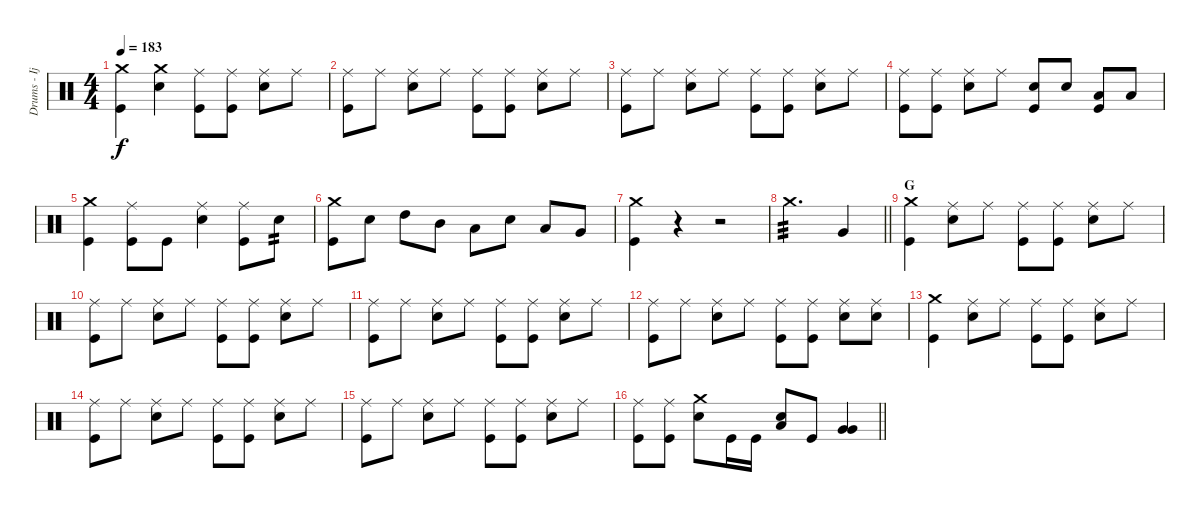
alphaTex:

\track ("Drums - Ijichi" "Drums - Ij") {instrument percussion}
\staff {score}
\articulation defaults
\ts (4 4)
\tempo 183
\clef neutral
\ks c
("Crash medium (hit)" "Kick (hit)").4{dy f} ("Crash medium (hit)" "Electric Snare (hit)").4 ("Ride (middle)" "Kick (hit)").8 ("Ride (middle)" "Kick (hit)").8 ("Ride (middle)" "Electric Snare (hit)").8 "Ride (middle)".8 |
("Ride (middle)" "Kick (hit)").8 "Ride (middle)".8 ("Ride (middle)" "Electric Snare (hit)").8 "Ride (middle)".8 ("Ride (middle)" "Kick (hit)").8 ("Ride (middle)" "Kick (hit)").8 ("Ride (middle)" "Electric Snare (hit)").8 "Ride (middle)".8 |
("Ride (middle)" "Kick (hit)").8 "Ride (middle)".8 ("Ride (middle)" "Electric Snare (hit)").8 "Ride (middle)".8 ("Ride (middle)" "Kick (hit)").8 ("Ride (middle)" "Kick (hit)").8 ("Ride (middle)" "Electric Snare (hit)").8 "Ride (middle)".8 |
("Ride (middle)" "Kick (hit)").8 ("Ride (middle)" "Kick (hit)").8 ("Ride (middle)" "Electric Snare (hit)").8 "Ride (middle)".8 ("Electric Snare (hit)" "Kick (hit)").8 "Electric Snare (hit)".8 ("Low Tom (hit)" "Kick (hit)").8 "Low Tom (hit)".8 |
("Crash medium (hit)" "Kick (hit)").4 ("Ride (middle)" "Kick (hit)").8 "Kick (hit)".8 ("Ride (middle)" "Electric Snare (hit)").4 ("Ride (middle)" "Kick (hit)").8 "Electric Snare (hit)".8{tp 2} |
("Crash medium (hit)" "Kick (hit)").8 "Electric Snare (hit)".8 "High Tom (hit)".8 "Mid Tom (hit)".8 "Low Tom (hit)".8 "Electric Snare (hit)".8 "Low Tom (hit)".8 "Very Low Tom (hit)".8 |
("Crash medium (hit)" "Kick (hit)").4{volume 11} r.4 r.2 |
\barLineRight lightlight "Crash medium (hit)".2{d tp 3 volume 13} "Very Low Tom (hit)".4
|
\section ("" "G")
("Crash medium (hit)" "Kick (hit)").4 ("Ride (middle)" "Electric Snare (hit)").8 "Ride (middle)".8 ("Ride (middle)" "Kick (hit)").8 ("Ride (middle)" "Kick (hit)").8 ("Ride (middle)" "Electric Snare (hit)").8 "Ride (middle)".8 |
("Ride (middle)" "Kick (hit)").8 "Ride (middle)".8 ("Ride (middle)" "Electric Snare (hit)").8 "Ride (middle)".8 ("Ride (middle)" "Kick (hit)").8 ("Ride (middle)" "Kick (hit)").8 ("Ride (middle)" "Electric Snare (hit)").8 "Ride (middle)".8 |
("Ride (middle)" "Kick (hit)").8 "Ride (middle)".8 ("Ride (middle)" "Electric Snare (hit)").8 "Ride (middle)".8 ("Ride (middle)" "Kick (hit)").8 ("Ride (middle)" "Kick (hit)").8 ("Ride (middle)" "Electric Snare (hit)").8 "Ride (middle)".8 |
("Ride (middle)" "Kick (hit)").8 "Ride (middle)".8 ("Ride (middle)" "Electric Snare (hit)").8 "Ride (middle)".8 ("Ride (middle)" "Kick (hit)").8 ("Ride (middle)" "Kick (hit)").8 ("Ride (middle)" "Electric Snare (hit)").8 ("Ride (middle)" "Electric Snare (hit)").8 |
("Crash medium (hit)" "Kick (hit)").4 ("Ride (middle)" "Electric Snare (hit)").8 "Ride (middle)".8 ("Ride (middle)" "Kick (hit)").8 ("Ride (middle)" "Kick (hit)").8 ("Ride (middle)" "Electric Snare (hit)").8 "Ride (middle)".8 |
("Ride (middle)" "Kick (hit)").8 "Ride (middle)".8 ("Ride (middle)" "Electric Snare (hit)").8 "Ride (middle)".8 ("Ride (middle)" "Kick (hit)").8 ("Ride (middle)" "Kick (hit)").8 ("Ride (middle)" "Electric Snare (hit)").8 "Ride (middle)".8 |
("Ride (middle)" "Kick (hit)").8 "Ride (middle)".8 ("Ride (middle)" "Electric Snare (hit)").8 "Ride (middle)".8 ("Ride (middle)" "Kick (hit)").8 ("Ride (middle)" "Kick (hit)").8 ("Ride (middle)" "Electric Snare (hit)").8 "Ride (middle)".8 |
\barLineRight lightlight
("Ride (middle)" "Kick (hit)").8 ("Ride (middle)" "Kick (hit)").8 ("Crash medium (hit)" "Electric Snare (hit)").8 "Kick (hit)".16 "Kick (hit)".16 ("Electric Snare (hit)" "Low Tom (hit)").8 "Kick (hit)".8 ("Very Low Tom (hit)" "Very Low Tom (hit)").4
